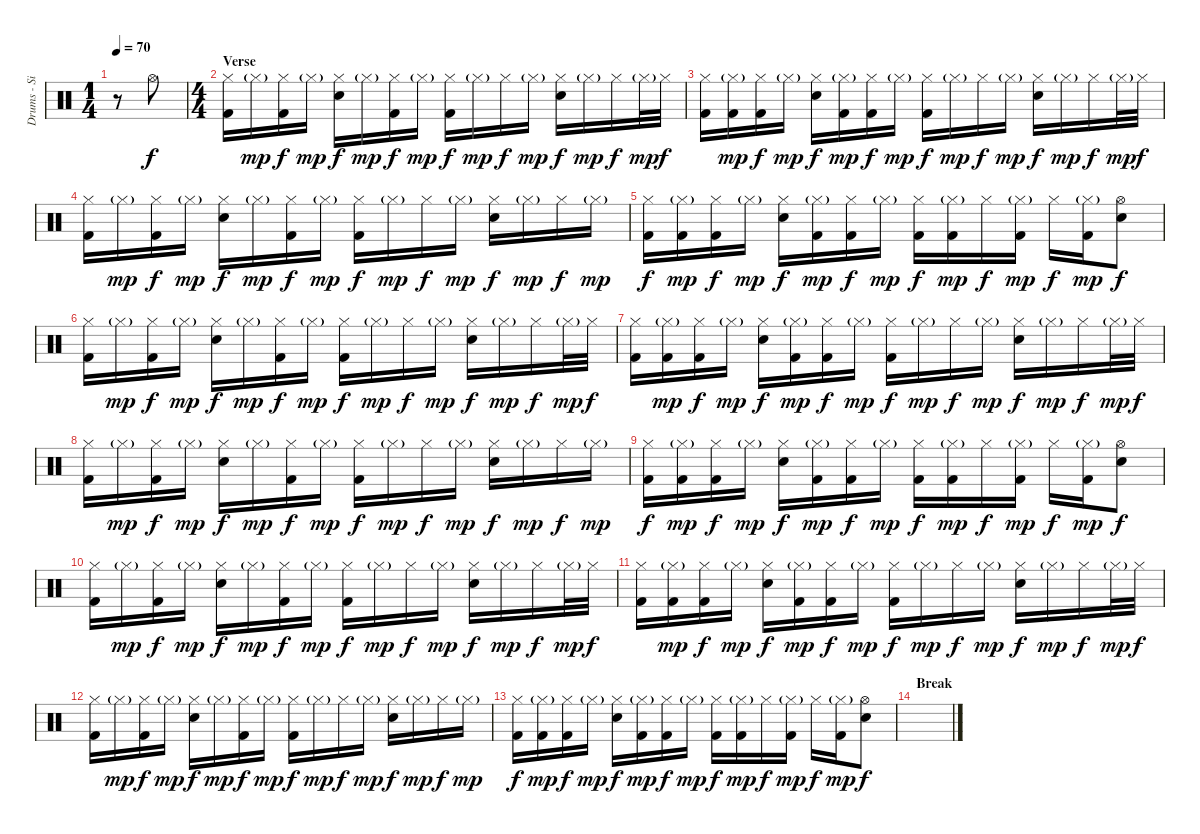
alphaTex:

\track ("Drums - Si" "Drums - Si") {instrument percussion}
\staff {score}
\articulation defaults
\ts (1 4)
\tempo 70
\clef neutral
\ks c
r.8{dy f} "Hi-Hat (open)".8 |
\ts (4 4)
\section ("" "Verse")
("Hi-Hat (closed)" "Kick (hit) 2").16 "Hi-Hat (closed)"{g}.16{dy mp} ("Hi-Hat (closed)" "Kick (hit) 2").16{dy f} "Hi-Hat (closed)"{g}.16{dy mp} ("Hi-Hat (closed)" "Snare (hit) 2").16{dy f} "Hi-Hat (closed)"{g}.16{dy mp} ("Hi-Hat (closed)" "Kick (hit) 2").16{dy f} "Hi-Hat (closed)"{g}.16{dy mp} ("Hi-Hat (closed)" "Kick (hit) 2").16{dy f} "Hi-Hat (closed)"{g}.16{dy mp} "Hi-Hat (closed)".16{dy f} "Hi-Hat (closed)"{g}.16{dy mp} ("Hi-Hat (closed)" "Snare (hit) 2").16{dy f} "Hi-Hat (closed)"{g}.16{dy mp} "Hi-Hat (closed)".16{dy f} "Hi-Hat (closed)"{g}.32{dy mp} "Hi-Hat (closed)".32{dy f} |
("Hi-Hat (closed)" "Kick (hit) 2").16 ("Hi-Hat (closed)"{g} "Kick (hit) 2").16{dy mp} ("Hi-Hat (closed)" "Kick (hit) 2").16{dy f} "Hi-Hat (closed)"{g}.16{dy mp} ("Hi-Hat (closed)" "Snare (hit) 2").16{dy f} ("Hi-Hat (closed)"{g} "Kick (hit) 2").16{dy mp} ("Hi-Hat (closed)" "Kick (hit) 2").16{dy f} "Hi-Hat (closed)"{g}.16{dy mp} ("Hi-Hat (closed)" "Kick (hit) 2").16{dy f} "Hi-Hat (closed)"{g}.16{dy mp} "Hi-Hat (closed)".16{dy f} "Hi-Hat (closed)"{g}.16{dy mp} ("Hi-Hat (closed)" "Snare (hit) 2").16{dy f} "Hi-Hat (closed)"{g}.16{dy mp} "Hi-Hat (closed)".16{dy f} "Hi-Hat (closed)"{g}.32{dy mp} "Hi-Hat (closed)".32{dy f} |
("Hi-Hat (closed)" "Kick (hit) 2").16 "Hi-Hat (closed)"{g}.16{dy mp} ("Hi-Hat (closed)" "Kick (hit) 2").16{dy f} "Hi-Hat (closed)"{g}.16{dy mp} ("Hi-Hat (closed)" "Snare (hit) 2").16{dy f} "Hi-Hat (closed)"{g}.16{dy mp} ("Hi-Hat (closed)" "Kick (hit) 2").16{dy f} "Hi-Hat (closed)"{g}.16{dy mp} ("Hi-Hat (closed)" "Kick (hit) 2").16{dy f} "Hi-Hat (closed)"{g}.16{dy mp} "Hi-Hat (closed)".16{dy f} "Hi-Hat (closed)"{g}.16{dy mp} ("Hi-Hat (closed)" "Snare (hit) 2").16{dy f} "Hi-Hat (closed)"{g}.16{dy mp} "Hi-Hat (closed)".16{dy f} "Hi-Hat (closed)"{g}.16{dy mp} |
("Hi-Hat (closed)" "Kick (hit) 2").16{dy f} ("Hi-Hat (closed)"{g} "Kick (hit) 2").16{dy mp} ("Hi-Hat (closed)" "Kick (hit) 2").16{dy f} "Hi-Hat (closed)"{g}.16{dy mp} ("Hi-Hat (closed)" "Snare (hit) 2").16{dy f} ("Hi-Hat (closed)"{g} "Kick (hit) 2").16{dy mp} ("Hi-Hat (closed)" "Kick (hit) 2").16{dy f} "Hi-Hat (closed)"{g}.16{dy mp} ("Hi-Hat (closed)" "Kick (hit) 2").16{dy f} ("Hi-Hat (closed)"{g} "Kick (hit) 2").16{dy mp} "Hi-Hat (closed)".16{dy f} ("Hi-Hat (closed)"{g} "Kick (hit) 2").16{dy mp} "Hi-Hat (closed)".16{dy f} ("Hi-Hat (closed)"{g} "Kick (hit) 2").16{dy mp} ("Hi-Hat (open)" "Snare (hit) 2").8{dy f} |
("Hi-Hat (closed)" "Kick (hit) 2").16 "Hi-Hat (closed)"{g}.16{dy mp} ("Hi-Hat (closed)" "Kick (hit) 2").16{dy f} "Hi-Hat (closed)"{g}.16{dy mp} ("Hi-Hat (closed)" "Snare (hit) 2").16{dy f} "Hi-Hat (closed)"{g}.16{dy mp} ("Hi-Hat (closed)" "Kick (hit) 2").16{dy f} "Hi-Hat (closed)"{g}.16{dy mp} ("Hi-Hat (closed)" "Kick (hit) 2").16{dy f} "Hi-Hat (closed)"{g}.16{dy mp} "Hi-Hat (closed)".16{dy f} "Hi-Hat (closed)"{g}.16{dy mp} ("Hi-Hat (closed)" "Snare (hit) 2").16{dy f} "Hi-Hat (closed)"{g}.16{dy mp} "Hi-Hat (closed)".16{dy f} "Hi-Hat (closed)"{g}.32{dy mp} "Hi-Hat (closed)".32{dy f} |
("Hi-Hat (closed)" "Kick (hit) 2").16 ("Hi-Hat (closed)"{g} "Kick (hit) 2").16{dy mp} ("Hi-Hat (closed)" "Kick (hit) 2").16{dy f} "Hi-Hat (closed)"{g}.16{dy mp} ("Hi-Hat (closed)" "Snare (hit) 2").16{dy f} ("Hi-Hat (closed)"{g} "Kick (hit) 2").16{dy mp} ("Hi-Hat (closed)" "Kick (hit) 2").16{dy f} "Hi-Hat (closed)"{g}.16{dy mp} ("Hi-Hat (closed)" "Kick (hit) 2").16{dy f} "Hi-Hat (closed)"{g}.16{dy mp} "Hi-Hat (closed)".16{dy f} "Hi-Hat (closed)"{g}.16{dy mp} ("Hi-Hat (closed)" "Snare (hit) 2").16{dy f} "Hi-Hat (closed)"{g}.16{dy mp} "Hi-Hat (closed)".16{dy f} "Hi-Hat (closed)"{g}.32{dy mp} "Hi-Hat (closed)".32{dy f} |
("Hi-Hat (closed)" "Kick (hit) 2").16 "Hi-Hat (closed)"{g}.16{dy mp} ("Hi-Hat (closed)" "Kick (hit) 2").16{dy f} "Hi-Hat (closed)"{g}.16{dy mp} ("Hi-Hat (closed)" "Snare (hit) 2").16{dy f} "Hi-Hat (closed)"{g}.16{dy mp} ("Hi-Hat (closed)" "Kick (hit) 2").16{dy f} "Hi-Hat (closed)"{g}.16{dy mp} ("Hi-Hat (closed)" "Kick (hit) 2").16{dy f} "Hi-Hat (closed)"{g}.16{dy mp} "Hi-Hat (closed)".16{dy f} "Hi-Hat (closed)"{g}.16{dy mp} ("Hi-Hat (closed)" "Snare (hit) 2").16{dy f} "Hi-Hat (closed)"{g}.16{dy mp} "Hi-Hat (closed)".16{dy f} "Hi-Hat (closed)"{g}.16{dy mp} |
("Hi-Hat (closed)" "Kick (hit) 2").16{dy f} ("Hi-Hat (closed)"{g} "Kick (hit) 2").16{dy mp} ("Hi-Hat (closed)" "Kick (hit) 2").16{dy f} "Hi-Hat (closed)"{g}.16{dy mp} ("Hi-Hat (closed)" "Snare (hit) 2").16{dy f} ("Hi-Hat (closed)"{g} "Kick (hit) 2").16{dy mp} ("Hi-Hat (closed)" "Kick (hit) 2").16{dy f} "Hi-Hat (closed)"{g}.16{dy mp} ("Hi-Hat (closed)" "Kick (hit) 2").16{dy f} ("Hi-Hat (closed)"{g} "Kick (hit) 2").16{dy mp} "Hi-Hat (closed)".16{dy f} ("Hi-Hat (closed)"{g} "Kick (hit) 2").16{dy mp} "Hi-Hat (closed)".16{dy f} ("Hi-Hat (closed)"{g} "Kick (hit) 2").16{dy mp} ("Hi-Hat (open)" "Snare (hit) 2").8{dy f} |
("Hi-Hat (closed)" "Kick (hit) 2").16 "Hi-Hat (closed)"{g}.16{dy mp} ("Hi-Hat (closed)" "Kick (hit) 2").16{dy f} "Hi-Hat (closed)"{g}.16{dy mp} ("Hi-Hat (closed)" "Snare (hit) 2").16{dy f} "Hi-Hat (closed)"{g}.16{dy mp} ("Hi-Hat (closed)" "Kick (hit) 2").16{dy f} "Hi-Hat (closed)"{g}.16{dy mp} ("Hi-Hat (closed)" "Kick (hit) 2").16{dy f} "Hi-Hat (closed)"{g}.16{dy mp} "Hi-Hat (closed)".16{dy f} "Hi-Hat (closed)"{g}.16{dy mp} ("Hi-Hat (closed)" "Snare (hit) 2").16{dy f} "Hi-Hat (closed)"{g}.16{dy mp} "Hi-Hat (closed)".16{dy f} "Hi-Hat (closed)"{g}.32{dy mp} "Hi-Hat (closed)".32{dy f} |
("Hi-Hat (closed)" "Kick (hit) 2").16 ("Hi-Hat (closed)"{g} "Kick (hit) 2").16{dy mp} ("Hi-Hat (closed)" "Kick (hit) 2").16{dy f} "Hi-Hat (closed)"{g}.16{dy mp} ("Hi-Hat (closed)" "Snare (hit) 2").16{dy f} ("Hi-Hat (closed)"{g} "Kick (hit) 2").16{dy mp} ("Hi-Hat (closed)" "Kick (hit) 2").16{dy f} "Hi-Hat (closed)"{g}.16{dy mp} ("Hi-Hat (closed)" "Kick (hit) 2").16{dy f} "Hi-Hat (closed)"{g}.16{dy mp} "Hi-Hat (closed)".16{dy f} "Hi-Hat (closed)"{g}.16{dy mp} ("Hi-Hat (closed)" "Snare (hit) 2").16{dy f} "Hi-Hat (closed)"{g}.16{dy mp} "Hi-Hat (closed)".16{dy f} "Hi-Hat (closed)"{g}.32{dy mp} "Hi-Hat (closed)".32{dy f} |
("Hi-Hat (closed)" "Kick (hit) 2").16 "Hi-Hat (closed)"{g}.16{dy mp} ("Hi-Hat (closed)" "Kick (hit) 2").16{dy f} "Hi-Hat (closed)"{g}.16{dy mp} ("Hi-Hat (closed)" "Snare (hit) 2").16{dy f} "Hi-Hat (closed)"{g}.16{dy mp} ("Hi-Hat (closed)" "Kick (hit) 2").16{dy f} "Hi-Hat (closed)"{g}.16{dy mp} ("Hi-Hat (closed)" "Kick (hit) 2").16{dy f} "Hi-Hat (closed)"{g}.16{dy mp} "Hi-Hat (closed)".16{dy f} "Hi-Hat (closed)"{g}.16{dy mp} ("Hi-Hat (closed)" "Snare (hit) 2").16{dy f} "Hi-Hat (closed)"{g}.16{dy mp} "Hi-Hat (closed)".16{dy f} "Hi-Hat (closed)"{g}.16{dy mp} |
("Hi-Hat (closed)" "Kick (hit) 2").16{dy f} ("Hi-Hat (closed)"{g} "Kick (hit) 2").16{dy mp} ("Hi-Hat (closed)" "Kick (hit) 2").16{dy f} "Hi-Hat (closed)"{g}.16{dy mp} ("Hi-Hat (closed)" "Snare (hit) 2").16{dy f} ("Hi-Hat (closed)"{g} "Kick (hit) 2").16{dy mp} ("Hi-Hat (closed)" "Kick (hit) 2").16{dy f} "Hi-Hat (closed)"{g}.16{dy mp} ("Hi-Hat (closed)" "Kick (hit) 2").16{dy f} ("Hi-Hat (closed)"{g} "Kick (hit) 2").16{dy mp} "Hi-Hat (closed)".16{dy f} ("Hi-Hat (closed)"{g} "Kick (hit) 2").16{dy mp} "Hi-Hat (closed)".16{dy f} ("Hi-Hat (closed)"{g} "Kick (hit) 2").16{dy mp} ("Hi-Hat (open)" "Snare (hit) 2").8{dy f} |
\section ("" "Break")
